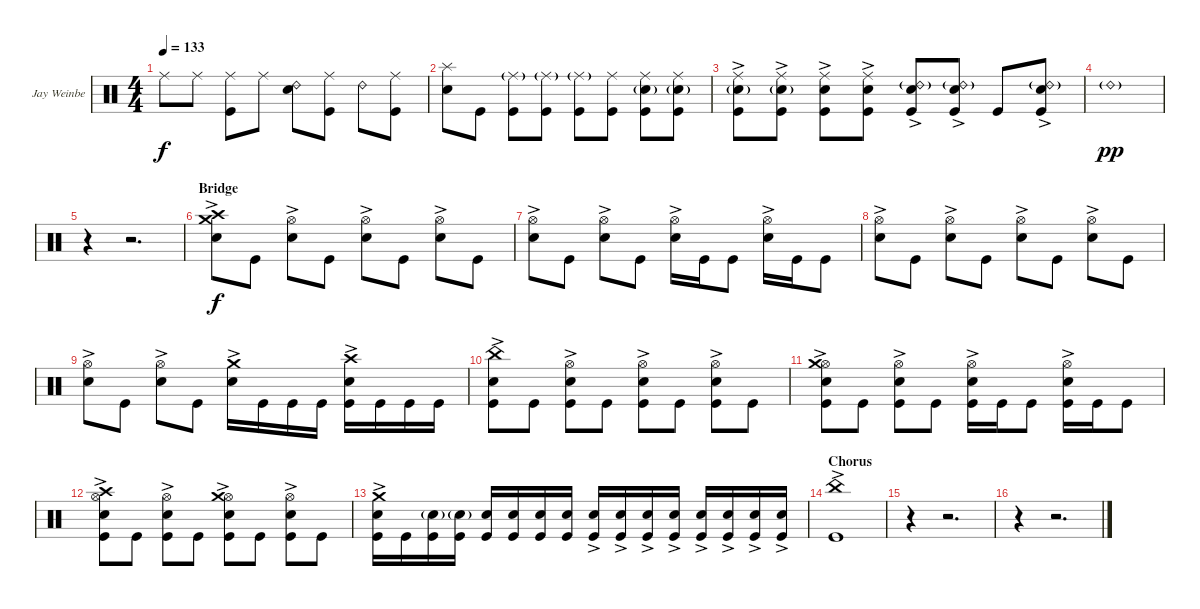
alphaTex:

\bracketExtendMode groupsimilarinstruments
\firstSystemTrackNameOrientation horizontal
\otherSystemsTrackNameOrientation horizontal
\track ("Jay Weinberg" "Jay Weinbe") {instrument percussion}
\staff {score}
\articulation defaults
\ts (4 4)
\tempo 133
\clef neutral
\ks c "Ride (middle)".8{dy f} "Ride (middle)".8
("Ride (middle)" "Kick (hit)").8 "Ride (middle)".8 ("Ride (bell) 2" "Snare (hit) 2").8 ("Ride (middle)" "Kick (hit)").8 "Ride (bell) 2".8 ("Ride (middle)" "Kick (hit)").8 |
("Snare (hit) 2" "Splash (hit)").8 "Kick (hit)".8 ("Kick (hit)" "Ride (middle)"{g}).8 ("Kick (hit)" "Ride (middle)"{g}).8 ("Kick (hit)" "Ride (middle)"{g}).8 ("Kick (hit)" "Ride (middle)").8 ("Kick (hit)" "Snare (hit) 2"{g} "Ride (middle)").8 ("Kick (hit)" "Snare (hit) 2"{g} "Ride (middle)").8 |
("Kick (hit)" "Snare (hit) 2"{g} "Ride (middle)"{ac}).8 ("Kick (hit)" "Snare (hit) 2"{g} "Ride (middle)"{ac}).8 ("Kick (hit)" "Snare (hit) 2" "Ride (middle)"{ac}).8 ("Kick (hit)" "Snare (hit) 2" "Ride (middle)"{ac}).8 ("Kick (hit)" "Snare (hit) 2"{ac} "Ride (bell) 2"{g}).8 ("Kick (hit)" "Snare (hit) 2"{ac} "Ride (bell) 2"{g}).8 "Kick (hit)".8 ("Kick (hit)" "Snare (hit) 2"{ac} "Ride (bell) 2"{g}).8 |
"Ride (bell) 2"{g}.1{dy pp} |
r.4 r.2{d} |
\section ("" "Bridge")
("Snare (hit) 2"{ac} "Crash medium (hit)" "Crash high (hit)").8{dy f} "Kick (hit)".8 ("Snare (hit) 2"{ac} "Hi-Hat (open)").8 "Kick (hit)".8 ("Snare (hit) 2"{ac} "Hi-Hat (open)").8 "Kick (hit)".8 ("Snare (hit) 2"{ac} "Hi-Hat (open)").8 "Kick (hit)".8 |
("Snare (hit) 2"{ac} "Hi-Hat (open)").8 "Kick (hit)".8 ("Snare (hit) 2"{ac} "Hi-Hat (open)").8 "Kick (hit)".8 ("Snare (hit) 2"{ac} "Hi-Hat (open)").16 "Kick (hit)".16 "Kick (hit)".8 ("Snare (hit) 2"{ac} "Hi-Hat (open)").16 "Kick (hit)".16 "Kick (hit)".8 |
("Snare (hit) 2"{ac} "Hi-Hat (open)").8 "Kick (hit)".8 ("Snare (hit) 2"{ac} "Hi-Hat (open)").8 "Kick (hit)".8 ("Snare (hit) 2"{ac} "Hi-Hat (open)").8 "Kick (hit)".8 ("Snare (hit) 2"{ac} "Hi-Hat (open)").8 "Kick (hit)".8 |
("Snare (hit) 2"{ac} "Hi-Hat (open)").8 "Kick (hit)".8 ("Snare (hit) 2"{ac} "Hi-Hat (open)").8 "Kick (hit)".8 ("Snare (hit) 2"{ac} "Crash medium (hit)").16 "Kick (hit)".16 "Kick (hit)".16 "Kick (hit)".16 ("Snare (hit) 2"{ac} "Crash high (hit)" "Kick (hit)").16 "Kick (hit)".16 "Kick (hit)".16 "Kick (hit)".16 |
("China (hit)"{ac} "Snare (hit) 2"{ac} "Kick (hit)").8 "Kick (hit)".8 ("Snare (hit) 2"{ac} "Hi-Hat (open)" "Kick (hit)").8 "Kick (hit)".8 ("Snare (hit) 2"{ac} "Hi-Hat (open)" "Kick (hit)").8 "Kick (hit)".8 ("Snare (hit) 2"{ac} "Hi-Hat (open)" "Kick (hit)").8 "Kick (hit)".8 |
("Snare (hit) 2"{ac} "Hi-Hat (open)" "Crash medium (hit)"{ac} "Kick (hit)").8 "Kick (hit)".8 ("Snare (hit) 2"{ac} "Hi-Hat (open)" "Kick (hit)").8 "Kick (hit)".8 ("Snare (hit) 2"{ac} "Hi-Hat (open)" "Kick (hit)").16 "Kick (hit)".16 "Kick (hit)".8 ("Snare (hit) 2"{ac} "Hi-Hat (open)" "Kick (hit)").16 "Kick (hit)".16 "Kick (hit)".8 |
("Snare (hit) 2"{ac} "Hi-Hat (open)" "Crash high (hit)" "Kick (hit)").8 "Kick (hit)".8 ("Snare (hit) 2"{ac} "Hi-Hat (open)" "Kick (hit)").8 "Kick (hit)".8 ("Snare (hit) 2"{ac} "Hi-Hat (open)" "Kick (hit)" "Crash medium (hit)").8 "Kick (hit)".8 ("Snare (hit) 2"{ac} "Hi-Hat (open)" "Kick (hit)").8 "Kick (hit)".8 |
("Kick (hit)" "Snare (hit) 2"{ac} "Crash medium (hit)").16 "Kick (hit)".16 ("Kick (hit)" "Snare (hit) 2"{g}).16 ("Kick (hit)" "Snare (hit) 2"{g}).16 ("Kick (hit)" "Snare (hit) 2").16 ("Kick (hit)" "Snare (hit) 2").16 ("Kick (hit)" "Snare (hit) 2").16 ("Kick (hit)" "Snare (hit) 2").16 ("Kick (hit)" "Snare (hit) 2"{ac}).16 ("Snare (hit) 2"{ac} "Kick (hit)").16 ("Snare (hit) 2"{ac} "Kick (hit)").16 ("Snare (hit) 2"{ac} "Kick (hit)").16 ("Snare (hit) 2"{ac} "Kick (hit)").16 ("Snare (hit) 2"{ac} "Kick (hit)").16 ("Snare (hit) 2"{ac} "Kick (hit)").16 ("Snare (hit) 2"{ac} "Kick (hit)").16 |
\section ("" "Chorus")
("Kick (hit)" "China (hit)"{ac}).1 |
r.4 r.2{d} |
r.4 r.2{d}
